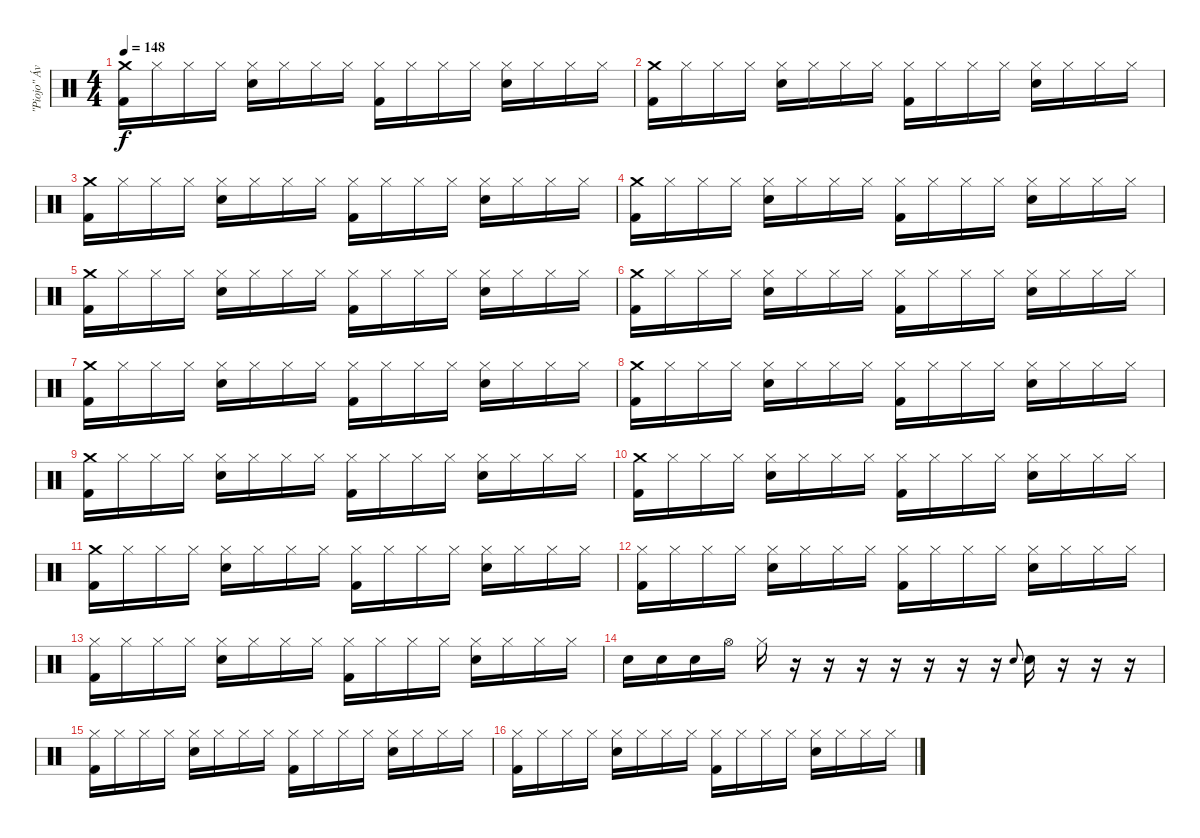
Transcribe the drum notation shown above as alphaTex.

\track ("\"Piojo\" Ávalos" "\"Piojo\" Áv") {instrument percussion}
\staff {score}
\articulation defaults
\ts (4 4)
\tempo 148
\clef neutral
\ks c
("Crash medium (hit)" "Kick (hit) 2").16{dy f} "Hi-Hat (closed)".16 "Hi-Hat (closed)".16 "Hi-Hat (closed)".16 ("Hi-Hat (closed)" "Electric Snare (hit)").16 "Hi-Hat (closed)".16 "Hi-Hat (closed)".16 "Hi-Hat (closed)".16 ("Hi-Hat (closed)" "Kick (hit) 2").16 "Hi-Hat (closed)".16 "Hi-Hat (closed)".16 "Hi-Hat (closed)".16 ("Hi-Hat (closed)" "Electric Snare (hit)").16 "Hi-Hat (closed)".16 "Hi-Hat (closed)".16 "Hi-Hat (closed)".16 |
("Crash medium (hit)" "Kick (hit) 2").16 "Hi-Hat (closed)".16 "Hi-Hat (closed)".16 "Hi-Hat (closed)".16 ("Hi-Hat (closed)" "Electric Snare (hit)").16 "Hi-Hat (closed)".16 "Hi-Hat (closed)".16 "Hi-Hat (closed)".16 ("Hi-Hat (closed)" "Kick (hit) 2").16 "Hi-Hat (closed)".16 "Hi-Hat (closed)".16 "Hi-Hat (closed)".16 ("Hi-Hat (closed)" "Electric Snare (hit)").16 "Hi-Hat (closed)".16 "Hi-Hat (closed)".16 "Hi-Hat (closed)".16 |
("Crash medium (hit)" "Kick (hit) 2").16 "Hi-Hat (closed)".16 "Hi-Hat (closed)".16 "Hi-Hat (closed)".16 ("Hi-Hat (closed)" "Electric Snare (hit)").16 "Hi-Hat (closed)".16 "Hi-Hat (closed)".16 "Hi-Hat (closed)".16 ("Hi-Hat (closed)" "Kick (hit) 2").16 "Hi-Hat (closed)".16 "Hi-Hat (closed)".16 "Hi-Hat (closed)".16 ("Hi-Hat (closed)" "Electric Snare (hit)").16 "Hi-Hat (closed)".16 "Hi-Hat (closed)".16 "Hi-Hat (closed)".16 |
("Crash medium (hit)" "Kick (hit) 2").16 "Hi-Hat (closed)".16 "Hi-Hat (closed)".16 "Hi-Hat (closed)".16 ("Hi-Hat (closed)" "Electric Snare (hit)").16 "Hi-Hat (closed)".16 "Hi-Hat (closed)".16 "Hi-Hat (closed)".16 ("Hi-Hat (closed)" "Kick (hit) 2").16 "Hi-Hat (closed)".16 "Hi-Hat (closed)".16 "Hi-Hat (closed)".16 ("Hi-Hat (closed)" "Electric Snare (hit)").16 "Hi-Hat (closed)".16 "Hi-Hat (closed)".16 "Hi-Hat (closed)".16 |
("Crash medium (hit)" "Kick (hit) 2").16 "Hi-Hat (closed)".16 "Hi-Hat (closed)".16 "Hi-Hat (closed)".16 ("Hi-Hat (closed)" "Electric Snare (hit)").16 "Hi-Hat (closed)".16 "Hi-Hat (closed)".16 "Hi-Hat (closed)".16 ("Hi-Hat (closed)" "Kick (hit) 2").16 "Hi-Hat (closed)".16 "Hi-Hat (closed)".16 "Hi-Hat (closed)".16 ("Hi-Hat (closed)" "Electric Snare (hit)").16 "Hi-Hat (closed)".16 "Hi-Hat (closed)".16 "Hi-Hat (closed)".16 |
("Crash medium (hit)" "Kick (hit) 2").16 "Hi-Hat (closed)".16 "Hi-Hat (closed)".16 "Hi-Hat (closed)".16 ("Hi-Hat (closed)" "Electric Snare (hit)").16 "Hi-Hat (closed)".16 "Hi-Hat (closed)".16 "Hi-Hat (closed)".16 ("Hi-Hat (closed)" "Kick (hit) 2").16 "Hi-Hat (closed)".16 "Hi-Hat (closed)".16 "Hi-Hat (closed)".16 ("Hi-Hat (closed)" "Electric Snare (hit)").16 "Hi-Hat (closed)".16 "Hi-Hat (closed)".16 "Hi-Hat (closed)".16 |
("Crash medium (hit)" "Kick (hit) 2").16 "Hi-Hat (closed)".16 "Hi-Hat (closed)".16 "Hi-Hat (closed)".16 ("Hi-Hat (closed)" "Electric Snare (hit)").16 "Hi-Hat (closed)".16 "Hi-Hat (closed)".16 "Hi-Hat (closed)".16 ("Hi-Hat (closed)" "Kick (hit) 2").16 "Hi-Hat (closed)".16 "Hi-Hat (closed)".16 "Hi-Hat (closed)".16 ("Hi-Hat (closed)" "Electric Snare (hit)").16 "Hi-Hat (closed)".16 "Hi-Hat (closed)".16 "Hi-Hat (closed)".16 |
("Crash medium (hit)" "Kick (hit) 2").16 "Hi-Hat (closed)".16 "Hi-Hat (closed)".16 "Hi-Hat (closed)".16 ("Hi-Hat (closed)" "Electric Snare (hit)").16 "Hi-Hat (closed)".16 "Hi-Hat (closed)".16 "Hi-Hat (closed)".16 ("Hi-Hat (closed)" "Kick (hit) 2").16 "Hi-Hat (closed)".16 "Hi-Hat (closed)".16 "Hi-Hat (closed)".16 ("Hi-Hat (closed)" "Electric Snare (hit)").16 "Hi-Hat (closed)".16 "Hi-Hat (closed)".16 "Hi-Hat (closed)".16 |
("Crash medium (hit)" "Kick (hit) 2").16 "Hi-Hat (closed)".16 "Hi-Hat (closed)".16 "Hi-Hat (closed)".16 ("Hi-Hat (closed)" "Electric Snare (hit)").16 "Hi-Hat (closed)".16 "Hi-Hat (closed)".16 "Hi-Hat (closed)".16 ("Hi-Hat (closed)" "Kick (hit) 2").16 "Hi-Hat (closed)".16 "Hi-Hat (closed)".16 "Hi-Hat (closed)".16 ("Hi-Hat (closed)" "Electric Snare (hit)").16 "Hi-Hat (closed)".16 "Hi-Hat (closed)".16 "Hi-Hat (closed)".16 |
("Crash medium (hit)" "Kick (hit) 2").16 "Hi-Hat (closed)".16 "Hi-Hat (closed)".16 "Hi-Hat (closed)".16 ("Hi-Hat (closed)" "Electric Snare (hit)").16 "Hi-Hat (closed)".16 "Hi-Hat (closed)".16 "Hi-Hat (closed)".16 ("Hi-Hat (closed)" "Kick (hit) 2").16 "Hi-Hat (closed)".16 "Hi-Hat (closed)".16 "Hi-Hat (closed)".16 ("Hi-Hat (closed)" "Electric Snare (hit)").16 "Hi-Hat (closed)".16 "Hi-Hat (closed)".16 "Hi-Hat (closed)".16 |
("Crash medium (hit)" "Kick (hit) 2").16 "Hi-Hat (closed)".16 "Hi-Hat (closed)".16 "Hi-Hat (closed)".16 ("Hi-Hat (closed)" "Electric Snare (hit)").16 "Hi-Hat (closed)".16 "Hi-Hat (closed)".16 "Hi-Hat (closed)".16 ("Hi-Hat (closed)" "Kick (hit) 2").16 "Hi-Hat (closed)".16 "Hi-Hat (closed)".16 "Hi-Hat (closed)".16 ("Hi-Hat (closed)" "Electric Snare (hit)").16 "Hi-Hat (closed)".16 "Hi-Hat (closed)".16 "Hi-Hat (closed)".16 |
("Hi-Hat (closed)" "Kick (hit) 2").16 "Hi-Hat (closed)".16 "Hi-Hat (closed)".16 "Hi-Hat (closed)".16 ("Hi-Hat (closed)" "Electric Snare (hit)").16 "Hi-Hat (closed)".16 "Hi-Hat (closed)".16 "Hi-Hat (closed)".16 ("Hi-Hat (closed)" "Kick (hit) 2").16 "Hi-Hat (closed)".16 "Hi-Hat (closed)".16 "Hi-Hat (closed)".16 ("Hi-Hat (closed)" "Electric Snare (hit)").16 "Hi-Hat (closed)".16 "Hi-Hat (closed)".16 "Hi-Hat (closed)".16 |
("Hi-Hat (closed)" "Kick (hit) 2").16 "Hi-Hat (closed)".16 "Hi-Hat (closed)".16 "Hi-Hat (closed)".16 ("Hi-Hat (closed)" "Electric Snare (hit)").16 "Hi-Hat (closed)".16 "Hi-Hat (closed)".16 "Hi-Hat (closed)".16 ("Hi-Hat (closed)" "Kick (hit) 2").16 "Hi-Hat (closed)".16 "Hi-Hat (closed)".16 "Hi-Hat (closed)".16 ("Hi-Hat (closed)" "Electric Snare (hit)").16 "Hi-Hat (closed)".16 "Hi-Hat (closed)".16 "Hi-Hat (closed)".16 |
"Electric Snare (hit)".16 "Electric Snare (hit)".16 "Electric Snare (hit)".16 "Hi-Hat (open)".16 "Hi-Hat (closed)".16 r.16 r.16 r.16 r.16 r.16 r.16 r.16 "Electric Snare (hit)".8{gr onbeat} "Electric Snare (hit)".16 r.16 r.16 r.16 |
("Hi-Hat (closed)" "Kick (hit) 2").16 "Hi-Hat (closed)".16 "Hi-Hat (closed)".16 "Hi-Hat (closed)".16 ("Hi-Hat (closed)" "Electric Snare (hit)").16 "Hi-Hat (closed)".16 "Hi-Hat (closed)".16 "Hi-Hat (closed)".16 ("Hi-Hat (closed)" "Kick (hit) 2").16 "Hi-Hat (closed)".16 "Hi-Hat (closed)".16 "Hi-Hat (closed)".16 ("Hi-Hat (closed)" "Electric Snare (hit)").16 "Hi-Hat (closed)".16 "Hi-Hat (closed)".16 "Hi-Hat (closed)".16 |
("Hi-Hat (closed)" "Kick (hit) 2").16 "Hi-Hat (closed)".16 "Hi-Hat (closed)".16 "Hi-Hat (closed)".16 ("Hi-Hat (closed)" "Electric Snare (hit)").16 "Hi-Hat (closed)".16 "Hi-Hat (closed)".16 "Hi-Hat (closed)".16 ("Hi-Hat (closed)" "Kick (hit) 2").16 "Hi-Hat (closed)".16 "Hi-Hat (closed)".16 "Hi-Hat (closed)".16 ("Hi-Hat (closed)" "Electric Snare (hit)").16 "Hi-Hat (closed)".16 "Hi-Hat (closed)".16 "Hi-Hat (closed)".16
